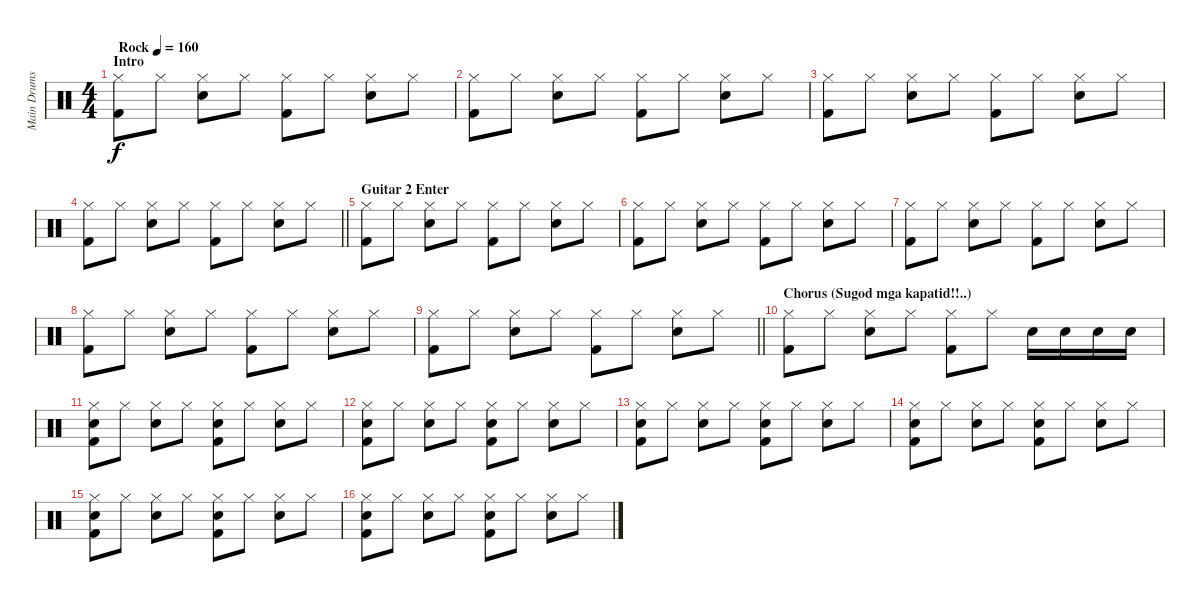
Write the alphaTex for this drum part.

\track ("Main Drumset" "Main Drums") {instrument percussion}
\staff {score}
\articulation defaults
\ts (4 4)
\section ("" "Intro")
\tempo (160 "Rock")
\clef neutral
\ks c
("Hi-Hat (closed)" "Kick (hit) 2").8{dy f} "Hi-Hat (closed)".8 ("Hi-Hat (closed)" "Electric Snare (hit)").8 "Hi-Hat (closed)".8 ("Hi-Hat (closed)" "Kick (hit) 2").8 "Hi-Hat (closed)".8 ("Hi-Hat (closed)" "Electric Snare (hit)").8 "Hi-Hat (closed)".8 |
("Hi-Hat (closed)" "Kick (hit) 2").8 "Hi-Hat (closed)".8 ("Hi-Hat (closed)" "Electric Snare (hit)").8 "Hi-Hat (closed)".8 ("Hi-Hat (closed)" "Kick (hit) 2").8 "Hi-Hat (closed)".8 ("Hi-Hat (closed)" "Electric Snare (hit)").8 "Hi-Hat (closed)".8 |
("Hi-Hat (closed)" "Kick (hit) 2").8 "Hi-Hat (closed)".8 ("Hi-Hat (closed)" "Electric Snare (hit)").8 "Hi-Hat (closed)".8 ("Hi-Hat (closed)" "Kick (hit) 2").8 "Hi-Hat (closed)".8 ("Hi-Hat (closed)" "Electric Snare (hit)").8 "Hi-Hat (closed)".8 |
\barLineRight lightlight
("Hi-Hat (closed)" "Kick (hit) 2").8 "Hi-Hat (closed)".8 ("Hi-Hat (closed)" "Electric Snare (hit)").8 "Hi-Hat (closed)".8 ("Hi-Hat (closed)" "Kick (hit) 2").8 "Hi-Hat (closed)".8 ("Hi-Hat (closed)" "Electric Snare (hit)").8 "Hi-Hat (closed)".8 |
\section ("" "Guitar 2 Enter")
("Hi-Hat (closed)" "Kick (hit) 2").8 "Hi-Hat (closed)".8 ("Hi-Hat (closed)" "Electric Snare (hit)").8 "Hi-Hat (closed)".8 ("Hi-Hat (closed)" "Kick (hit) 2").8 "Hi-Hat (closed)".8 ("Hi-Hat (closed)" "Electric Snare (hit)").8 "Hi-Hat (closed)".8 |
("Hi-Hat (closed)" "Kick (hit) 2").8 "Hi-Hat (closed)".8 ("Hi-Hat (closed)" "Electric Snare (hit)").8 "Hi-Hat (closed)".8 ("Hi-Hat (closed)" "Kick (hit) 2").8 "Hi-Hat (closed)".8 ("Hi-Hat (closed)" "Electric Snare (hit)").8 "Hi-Hat (closed)".8 |
("Hi-Hat (closed)" "Kick (hit) 2").8 "Hi-Hat (closed)".8 ("Hi-Hat (closed)" "Electric Snare (hit)").8 "Hi-Hat (closed)".8 ("Hi-Hat (closed)" "Kick (hit) 2").8 "Hi-Hat (closed)".8 ("Hi-Hat (closed)" "Electric Snare (hit)").8 "Hi-Hat (closed)".8 |
("Hi-Hat (closed)" "Kick (hit) 2").8 "Hi-Hat (closed)".8 ("Hi-Hat (closed)" "Electric Snare (hit)").8 "Hi-Hat (closed)".8 ("Hi-Hat (closed)" "Kick (hit) 2").8 "Hi-Hat (closed)".8 ("Hi-Hat (closed)" "Electric Snare (hit)").8 "Hi-Hat (closed)".8 |
\barLineRight lightlight
("Hi-Hat (closed)" "Kick (hit) 2").8 "Hi-Hat (closed)".8 ("Hi-Hat (closed)" "Electric Snare (hit)").8 "Hi-Hat (closed)".8 ("Hi-Hat (closed)" "Kick (hit) 2").8 "Hi-Hat (closed)".8 ("Hi-Hat (closed)" "Electric Snare (hit)").8 "Hi-Hat (closed)".8 |
\section ("" "Chorus (Sugod mga kapatid!!..)")
("Hi-Hat (closed)" "Kick (hit) 2").8 "Hi-Hat (closed)".8 ("Hi-Hat (closed)" "Electric Snare (hit)").8 "Hi-Hat (closed)".8 ("Hi-Hat (closed)" "Kick (hit) 2").8 "Hi-Hat (closed)".8 "Electric Snare (hit)".16 "Electric Snare (hit)".16 "Electric Snare (hit)".16 "Electric Snare (hit)".16 |
("Hi-Hat (closed)" "Electric Snare (hit)" "Kick (hit) 2").8 "Hi-Hat (closed)".8 ("Hi-Hat (closed)" "Electric Snare (hit)").8 "Hi-Hat (closed)".8 ("Hi-Hat (closed)" "Electric Snare (hit)" "Kick (hit) 2").8 "Hi-Hat (closed)".8 ("Hi-Hat (closed)" "Electric Snare (hit)").8 "Hi-Hat (closed)".8 |
("Hi-Hat (closed)" "Electric Snare (hit)" "Kick (hit) 2").8 "Hi-Hat (closed)".8 ("Hi-Hat (closed)" "Electric Snare (hit)").8 "Hi-Hat (closed)".8 ("Hi-Hat (closed)" "Electric Snare (hit)" "Kick (hit) 2").8 "Hi-Hat (closed)".8 ("Hi-Hat (closed)" "Electric Snare (hit)").8 "Hi-Hat (closed)".8 |
("Hi-Hat (closed)" "Electric Snare (hit)" "Kick (hit) 2").8 "Hi-Hat (closed)".8 ("Hi-Hat (closed)" "Electric Snare (hit)").8 "Hi-Hat (closed)".8 ("Hi-Hat (closed)" "Electric Snare (hit)" "Kick (hit) 2").8 "Hi-Hat (closed)".8 ("Hi-Hat (closed)" "Electric Snare (hit)").8 "Hi-Hat (closed)".8 |
("Hi-Hat (closed)" "Electric Snare (hit)" "Kick (hit) 2").8 "Hi-Hat (closed)".8 ("Hi-Hat (closed)" "Electric Snare (hit)").8 "Hi-Hat (closed)".8 ("Hi-Hat (closed)" "Electric Snare (hit)" "Kick (hit) 2").8 "Hi-Hat (closed)".8 ("Hi-Hat (closed)" "Electric Snare (hit)").8 "Hi-Hat (closed)".8 |
("Hi-Hat (closed)" "Electric Snare (hit)" "Kick (hit) 2").8 "Hi-Hat (closed)".8 ("Hi-Hat (closed)" "Electric Snare (hit)").8 "Hi-Hat (closed)".8 ("Hi-Hat (closed)" "Electric Snare (hit)" "Kick (hit) 2").8 "Hi-Hat (closed)".8 ("Hi-Hat (closed)" "Electric Snare (hit)").8 "Hi-Hat (closed)".8 |
("Hi-Hat (closed)" "Electric Snare (hit)" "Kick (hit) 2").8 "Hi-Hat (closed)".8 ("Hi-Hat (closed)" "Electric Snare (hit)").8 "Hi-Hat (closed)".8 ("Hi-Hat (closed)" "Electric Snare (hit)" "Kick (hit) 2").8 "Hi-Hat (closed)".8 ("Hi-Hat (closed)" "Electric Snare (hit)").8 "Hi-Hat (closed)".8
